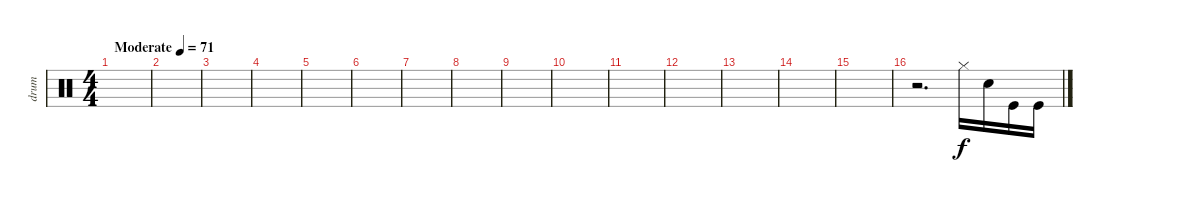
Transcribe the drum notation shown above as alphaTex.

\track ("drum" "drum") {instrument percussion}
\staff {score}
\articulation defaults
\ts (4 4)
\tempo (71 "Moderate")
\clef neutral
\ks c
|
|
|
|
|
|
|
|
|
|
|
|
|
|
|
r.2{d} "Hi-Hat (closed)".16 "Snare (hit) 2".16 "Kick (hit)".16 "Kick (hit)".16
